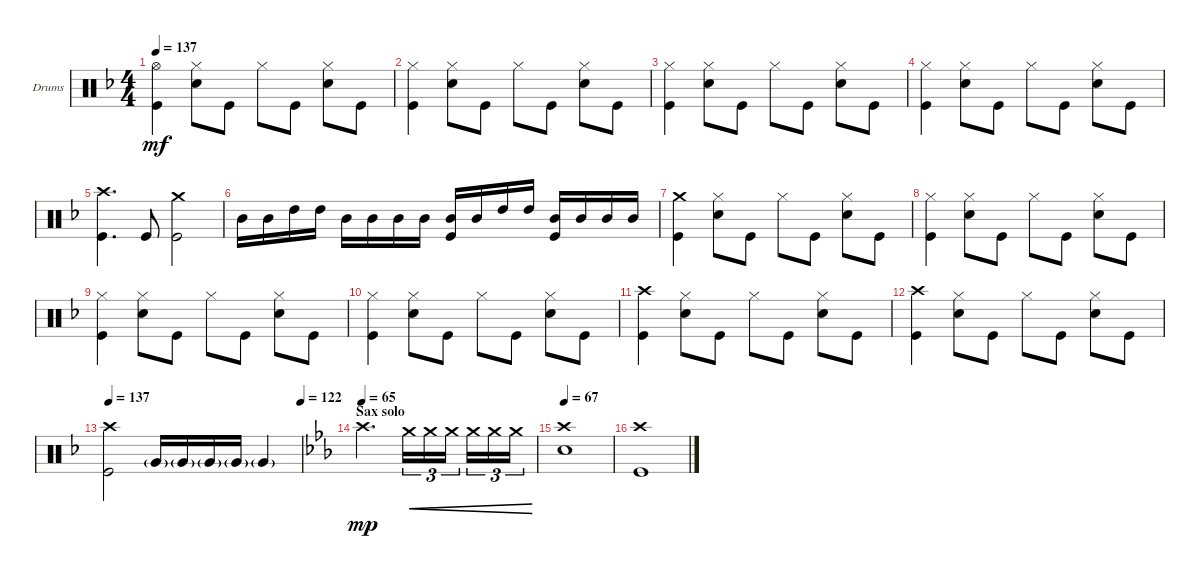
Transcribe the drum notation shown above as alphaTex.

\defaultSystemsLayout 4
\bracketExtendMode groupsimilarinstruments
\firstSystemTrackNameOrientation horizontal
\otherSystemsTrackNameOrientation horizontal
\track ("Drumkit" "Drums") {instrument percussion}
\staff {score}
\articulation defaults
\ts (4 4)
\tempo 137
\clef neutral
\ks f
("Kick (hit)" "Hi-Hat (open)").4{dy mf} ("Snare (hit) 2" "Hi-Hat (closed)").8 "Kick (hit)".8 "Hi-Hat (closed)".8 "Kick (hit)".8 ("Snare (hit) 2" "Hi-Hat (closed)").8 "Kick (hit)".8 |
("Kick (hit)" "Hi-Hat (closed)").4 ("Snare (hit) 2" "Hi-Hat (closed)").8 "Kick (hit)".8 "Hi-Hat (closed)".8 "Kick (hit)".8 ("Snare (hit) 2" "Hi-Hat (closed)").8 "Kick (hit)".8 |
("Kick (hit)" "Hi-Hat (closed)").4 ("Snare (hit) 2" "Hi-Hat (closed)").8 "Kick (hit)".8 "Hi-Hat (closed)".8 "Kick (hit)".8 ("Snare (hit) 2" "Hi-Hat (closed)").8 "Kick (hit)".8 |
("Kick (hit)" "Hi-Hat (closed)").4 ("Snare (hit) 2" "Hi-Hat (closed)").8 "Kick (hit)".8 "Hi-Hat (closed)".8 "Kick (hit)".8 ("Snare (hit) 2" "Hi-Hat (closed)").8 "Kick (hit)".8 |
("Kick (hit)" "Crash high (hit)").4{d} "Kick (hit)".8 ("Kick (hit)" "Crash medium (hit)").2 |
"Mid Tom (hit)".16 "Mid Tom (hit)".16 "High Tom (hit)".16 "High Tom (hit)".16 "Mid Tom (hit)".16 "Mid Tom (hit)".16 "Mid Tom (hit)".16 "Mid Tom (hit)".16 ("Mid Tom (hit)" "Kick (hit)").16 "Mid Tom (hit)".16 "High Tom (hit)".16 "High Tom (hit)".16 ("Mid Tom (hit)" "Kick (hit)").16 "Mid Tom (hit)".16 "Mid Tom (hit)".16 "Mid Tom (hit)".16 |
("Kick (hit)" "Crash medium (hit)").4 ("Snare (hit) 2" "Hi-Hat (closed)").8 "Kick (hit)".8 "Hi-Hat (closed)".8 "Kick (hit)".8 ("Snare (hit) 2" "Hi-Hat (closed)").8 "Kick (hit)".8 |
("Kick (hit)" "Hi-Hat (closed)").4 ("Snare (hit) 2" "Hi-Hat (closed)").8 "Kick (hit)".8 "Hi-Hat (closed)".8 "Kick (hit)".8 ("Snare (hit) 2" "Hi-Hat (closed)").8 "Kick (hit)".8 |
("Kick (hit)" "Hi-Hat (closed)").4 ("Snare (hit) 2" "Hi-Hat (closed)").8 "Kick (hit)".8 "Hi-Hat (closed)".8 "Kick (hit)".8 ("Snare (hit) 2" "Hi-Hat (closed)").8 "Kick (hit)".8 |
("Kick (hit)" "Hi-Hat (closed)").4 ("Snare (hit) 2" "Hi-Hat (closed)").8 "Kick (hit)".8 "Hi-Hat (closed)".8 "Kick (hit)".8 ("Snare (hit) 2" "Hi-Hat (closed)").8 "Kick (hit)".8 |
("Kick (hit)" "Crash high (hit)").4 ("Snare (hit) 2" "Hi-Hat (closed)").8 "Kick (hit)".8 "Hi-Hat (closed)".8 "Kick (hit)".8 ("Snare (hit) 2" "Hi-Hat (closed)").8 "Kick (hit)".8 |
("Kick (hit)" "Crash high (hit)").4 ("Snare (hit) 2" "Hi-Hat (closed)").8 "Kick (hit)".8 "Hi-Hat (closed)".8 "Kick (hit)".8 ("Snare (hit) 2" "Hi-Hat (closed)").8 "Kick (hit)".8 |
\tempo 137
\tempo (122 1)
("Kick (hit)" "Crash high (hit)").2 "Very Low Tom (hit)"{g}.16 "Very Low Tom (hit)"{g}.16 "Very Low Tom (hit)"{g}.16 "Very Low Tom (hit)"{g}.16 "Very Low Tom (hit)"{g}.4 |
\section ("" "Sax solo")
\tempo 65
\ks eb "Crash high (hit)".2{d dy mp} "Crash medium (hit)".16{tu (3 2) cre} "Crash medium (hit)".16{tu (3 2) cre} "Crash medium (hit)".16{tu (3 2) cre} "Crash medium (hit)".16{tu (3 2) cre} "Crash medium (hit)".16{tu (3 2) cre} "Crash medium (hit)".16{tu (3 2) cre}
|
\tempo (67 0.0125)
("Crash high (hit)" "Snare (hit) 2").1 |
("Crash high (hit)" "Kick (hit)").1
